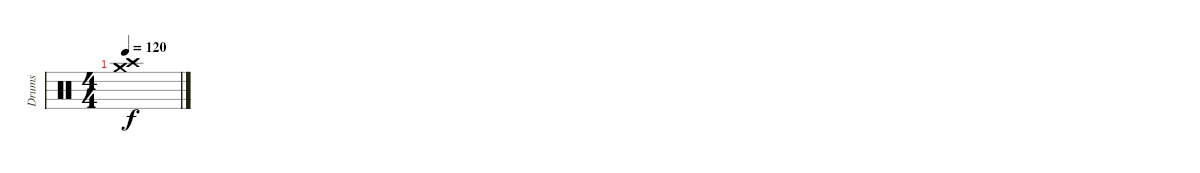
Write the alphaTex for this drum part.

\track ("Drums" "Drums") {instrument percussion}
\staff {score}
\articulation defaults
\ts (4 4)
\tempo 120
\clef neutral
\ks c
("Crash medium (hit)" "Crash high (hit)").1{dy f}
